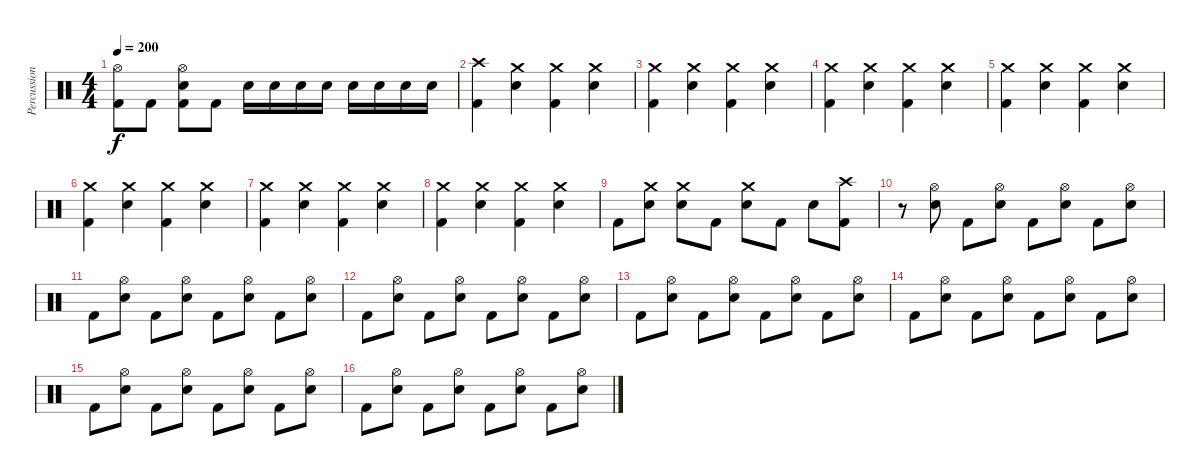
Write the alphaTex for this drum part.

\track ("Percussion" "Percussion") {instrument percussion}
\staff {score}
\articulation defaults
\ts (4 4)
\tempo 200
\clef neutral
\ks c
("Hi-Hat (open)" "Kick (hit) 2").8{dy f} "Kick (hit) 2".8 ("Hi-Hat (open)" "Electric Snare (hit)" "Kick (hit) 2").8 "Kick (hit) 2".8 "Electric Snare (hit)".16 "Electric Snare (hit)".16 "Electric Snare (hit)".16 "Electric Snare (hit)".16 "Electric Snare (hit)".16 "Electric Snare (hit)".16 "Electric Snare (hit)".16 "Electric Snare (hit)".16 |
("Crash high (hit)" "Kick (hit) 2").4 ("Crash medium (hit)" "Electric Snare (hit)").4 ("Crash medium (hit)" "Kick (hit) 2").4 ("Crash medium (hit)" "Electric Snare (hit)").4 |
("Crash medium (hit)" "Kick (hit) 2").4 ("Crash medium (hit)" "Electric Snare (hit)").4 ("Crash medium (hit)" "Kick (hit) 2").4 ("Crash medium (hit)" "Electric Snare (hit)").4 |
("Crash medium (hit)" "Kick (hit) 2").4 ("Crash medium (hit)" "Electric Snare (hit)").4 ("Crash medium (hit)" "Kick (hit) 2").4 ("Crash medium (hit)" "Electric Snare (hit)").4 |
("Crash medium (hit)" "Kick (hit) 2").4 ("Crash medium (hit)" "Electric Snare (hit)").4 ("Crash medium (hit)" "Kick (hit) 2").4 ("Crash medium (hit)" "Electric Snare (hit)").4 |
("Crash medium (hit)" "Kick (hit) 2").4 ("Crash medium (hit)" "Electric Snare (hit)").4 ("Crash medium (hit)" "Kick (hit) 2").4 ("Crash medium (hit)" "Electric Snare (hit)").4 |
("Crash medium (hit)" "Kick (hit) 2").4 ("Crash medium (hit)" "Electric Snare (hit)").4 ("Crash medium (hit)" "Kick (hit) 2").4 ("Crash medium (hit)" "Electric Snare (hit)").4 |
("Crash medium (hit)" "Kick (hit) 2").4 ("Crash medium (hit)" "Electric Snare (hit)").4 ("Crash medium (hit)" "Kick (hit) 2").4 ("Crash medium (hit)" "Electric Snare (hit)").4 |
"Kick (hit) 2".8 ("Crash medium (hit)" "Electric Snare (hit)").8 ("Crash medium (hit)" "Electric Snare (hit)").8 "Kick (hit) 2".8 ("Crash medium (hit)" "Electric Snare (hit)").8 "Kick (hit) 2".8 "Electric Snare (hit)".8 ("Crash high (hit)" "Kick (hit) 2").8 |
r.8 ("Hi-Hat (open)" "Electric Snare (hit)").8 "Kick (hit) 2".8 ("Hi-Hat (open)" "Electric Snare (hit)").8 "Kick (hit) 2".8 ("Hi-Hat (open)" "Electric Snare (hit)").8 "Kick (hit) 2".8 ("Hi-Hat (open)" "Electric Snare (hit)").8 |
"Kick (hit) 2".8 ("Hi-Hat (open)" "Electric Snare (hit)").8 "Kick (hit) 2".8 ("Hi-Hat (open)" "Electric Snare (hit)").8 "Kick (hit) 2".8 ("Hi-Hat (open)" "Electric Snare (hit)").8 "Kick (hit) 2".8 ("Hi-Hat (open)" "Electric Snare (hit)").8 |
"Kick (hit) 2".8 ("Hi-Hat (open)" "Electric Snare (hit)").8 "Kick (hit) 2".8 ("Hi-Hat (open)" "Electric Snare (hit)").8 "Kick (hit) 2".8 ("Hi-Hat (open)" "Electric Snare (hit)").8 "Kick (hit) 2".8 ("Hi-Hat (open)" "Electric Snare (hit)").8 |
"Kick (hit) 2".8 ("Hi-Hat (open)" "Electric Snare (hit)").8 "Kick (hit) 2".8 ("Hi-Hat (open)" "Electric Snare (hit)").8 "Kick (hit) 2".8 ("Hi-Hat (open)" "Electric Snare (hit)").8 "Kick (hit) 2".8 ("Hi-Hat (open)" "Electric Snare (hit)").8 |
"Kick (hit) 2".8 ("Hi-Hat (open)" "Electric Snare (hit)").8 "Kick (hit) 2".8 ("Hi-Hat (open)" "Electric Snare (hit)").8 "Kick (hit) 2".8 ("Hi-Hat (open)" "Electric Snare (hit)").8 "Kick (hit) 2".8 ("Hi-Hat (open)" "Electric Snare (hit)").8 |
"Kick (hit) 2".8 ("Hi-Hat (open)" "Electric Snare (hit)").8 "Kick (hit) 2".8 ("Hi-Hat (open)" "Electric Snare (hit)").8 "Kick (hit) 2".8 ("Hi-Hat (open)" "Electric Snare (hit)").8 "Kick (hit) 2".8 ("Hi-Hat (open)" "Electric Snare (hit)").8 |
"Kick (hit) 2".8 ("Hi-Hat (open)" "Electric Snare (hit)").8 "Kick (hit) 2".8 ("Hi-Hat (open)" "Electric Snare (hit)").8 "Kick (hit) 2".8 ("Hi-Hat (open)" "Electric Snare (hit)").8 "Kick (hit) 2".8 ("Hi-Hat (open)" "Electric Snare (hit)").8
